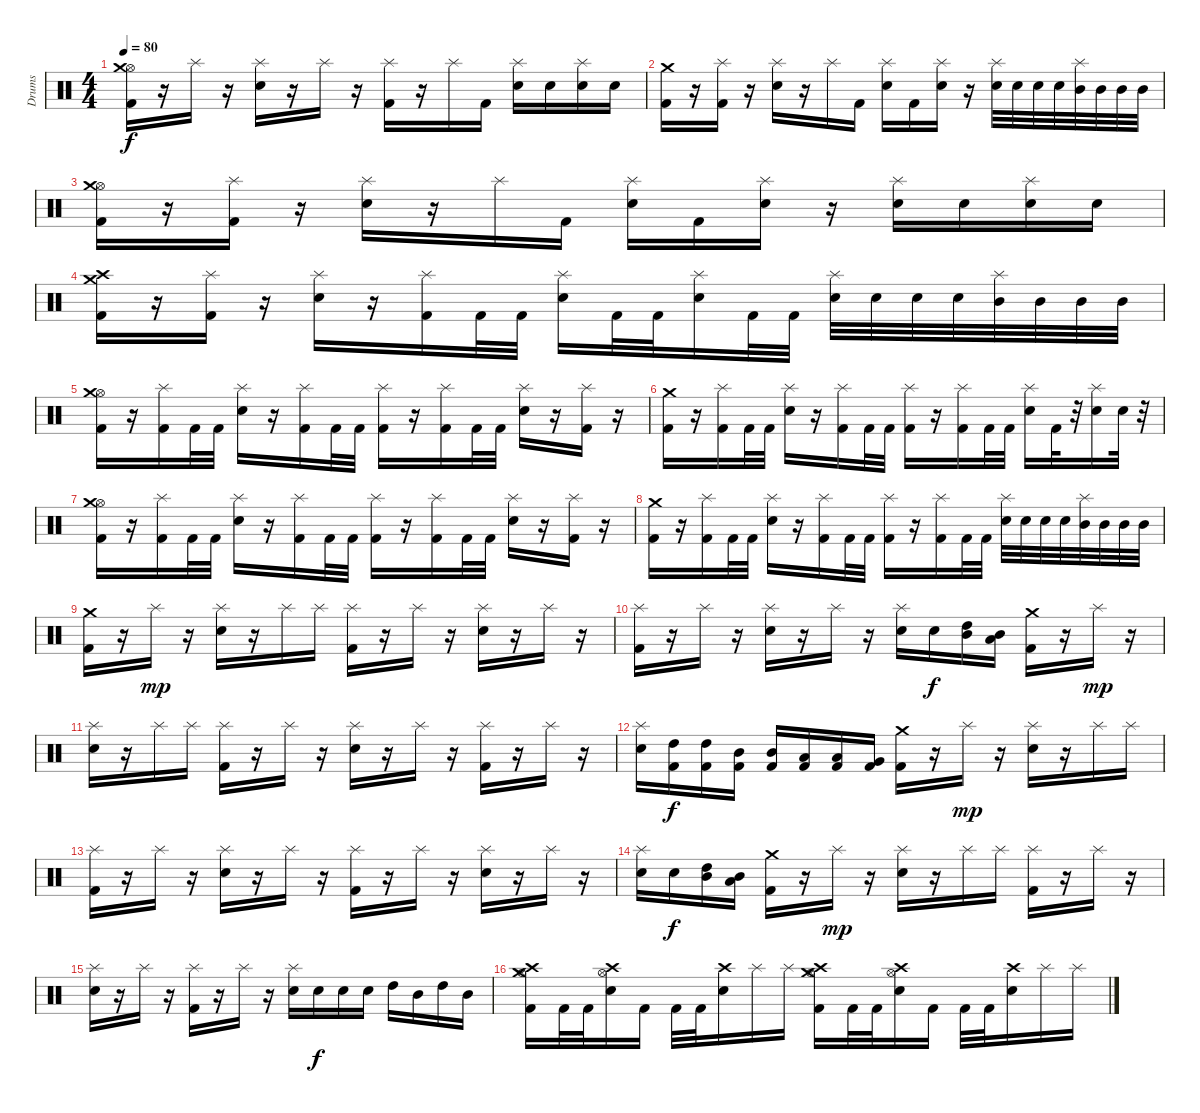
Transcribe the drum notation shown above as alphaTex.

\track ("Drums" "Drums") {instrument percussion}
\staff {score}
\articulation defaults
\ts (4 4)
\tempo 80
\clef neutral
\ks c
("Hi-Hat (open)" "Crash medium (hit)" "Kick (hit) 2").16{dy f} r.16 "Splash (hit)".16 r.16 ("Splash (hit)" "Snare (hit) 2").16 r.16 "Splash (hit)".16 r.16 ("Kick (hit) 2" "Splash (hit)").16 r.16 "Splash (hit)".16 "Kick (hit) 2".16 ("Electric Snare (hit)" "Splash (hit)").16 "Electric Snare (hit)".16 ("Electric Snare (hit)" "Splash (hit)").16 "Electric Snare (hit)".16 |
("Crash medium (hit)" "Kick (hit) 2").16 r.16 ("Kick (hit) 2" "Splash (hit)").16 r.16 ("Splash (hit)" "Snare (hit) 2").16 r.16 "Splash (hit)".16 "Kick (hit) 2".16 ("Splash (hit)" "Electric Snare (hit)").16 "Kick (hit) 2".16 ("Splash (hit)" "Electric Snare (hit)").16 r.16 ("Splash (hit)" "Electric Snare (hit)").32 "Electric Snare (hit)".32 "Electric Snare (hit)".32 "Electric Snare (hit)".32 ("Splash (hit)" "Mid Tom (hit)").32 "Mid Tom (hit)".32 "Mid Tom (hit)".32 "Mid Tom (hit)".32 |
("Hi-Hat (open)" "Crash medium (hit)" "Kick (hit) 2").16 r.16 ("Kick (hit) 2" "Splash (hit)").16 r.16 ("Snare (hit) 2" "Splash (hit)").16 r.16 "Splash (hit)".16 "Kick (hit) 2".16 ("Electric Snare (hit)" "Splash (hit)").16 "Kick (hit) 2".16 ("Electric Snare (hit)" "Splash (hit)").16 r.16 ("Electric Snare (hit)" "Splash (hit)").16 "Electric Snare (hit)".16 ("Electric Snare (hit)" "Splash (hit)").16 "Electric Snare (hit)".16 |
("Crash high (hit)" "Crash medium (hit)" "Kick (hit) 2").16 r.16 ("Kick (hit) 2" "Splash (hit)").16 r.16 ("Snare (hit) 2" "Splash (hit)").16 r.16 ("Kick (hit) 2" "Splash (hit)").16 "Kick (hit) 2".32 "Kick (hit) 2".32 ("Electric Snare (hit)" "Splash (hit)").16 "Kick (hit) 2".32 "Kick (hit) 2".32 ("Electric Snare (hit)" "Splash (hit)").16 "Kick (hit) 2".32 "Kick (hit) 2".32 ("Electric Snare (hit)" "Splash (hit)").32 "Electric Snare (hit)".32 "Electric Snare (hit)".32 "Electric Snare (hit)".32 ("Mid Tom (hit)" "Splash (hit)").32 "Mid Tom (hit)".32 "Mid Tom (hit)".32 "Mid Tom (hit)".32 |
("Hi-Hat (open)" "Crash medium (hit)" "Kick (hit) 2").16 r.16 ("Splash (hit)" "Kick (hit) 2").16 "Kick (hit) 2".32 "Kick (hit) 2".32 ("Snare (hit) 2" "Splash (hit)").16 r.16 ("Kick (hit) 2" "Splash (hit)").16 "Kick (hit) 2".32 "Kick (hit) 2".32 ("Kick (hit) 2" "Splash (hit)").16 r.16 ("Kick (hit) 2" "Splash (hit)").16 "Kick (hit) 2".32 "Kick (hit) 2".32 ("Snare (hit) 2" "Splash (hit)").16 r.16 ("Kick (hit) 2" "Splash (hit)").16 r.16 |
("Crash medium (hit)" "Kick (hit) 2").16 r.16 ("Splash (hit)" "Kick (hit) 2").16 "Kick (hit) 2".32 "Kick (hit) 2".32 ("Snare (hit) 2" "Splash (hit)").16 r.16 ("Kick (hit) 2" "Splash (hit)").16 "Kick (hit) 2".32 "Kick (hit) 2".32 ("Kick (hit) 2" "Splash (hit)").16 r.16 ("Kick (hit) 2" "Splash (hit)").16 "Kick (hit) 2".32 "Kick (hit) 2".32 ("Snare (hit) 2" "Splash (hit)").16 "Kick (hit) 2".32 r.32 ("Electric Snare (hit)" "Splash (hit)").16 "Electric Snare (hit)".32 r.32 |
("Hi-Hat (open)" "Crash medium (hit)" "Kick (hit) 2").16 r.16 ("Splash (hit)" "Kick (hit) 2").16 "Kick (hit) 2".32 "Kick (hit) 2".32 ("Snare (hit) 2" "Splash (hit)").16 r.16 ("Kick (hit) 2" "Splash (hit)").16 "Kick (hit) 2".32 "Kick (hit) 2".32 ("Kick (hit) 2" "Splash (hit)").16 r.16 ("Kick (hit) 2" "Splash (hit)").16 "Kick (hit) 2".32 "Kick (hit) 2".32 ("Snare (hit) 2" "Splash (hit)").16 r.16 ("Kick (hit) 2" "Splash (hit)").16 r.16 |
("Crash medium (hit)" "Kick (hit) 2").16 r.16 ("Splash (hit)" "Kick (hit) 2").16 "Kick (hit) 2".32 "Kick (hit) 2".32 ("Snare (hit) 2" "Splash (hit)").16 r.16 ("Kick (hit) 2" "Splash (hit)").16 "Kick (hit) 2".32 "Kick (hit) 2".32 ("Splash (hit)" "Kick (hit) 2").16 r.16 ("Kick (hit) 2" "Splash (hit)").16 "Kick (hit) 2".32 "Kick (hit) 2".32 ("Snare (hit) 2" "Splash (hit)").32 "Electric Snare (hit)".32 "Electric Snare (hit)".32 "Electric Snare (hit)".32 ("Mid Tom (hit)" "Splash (hit)").32 "Mid Tom (hit)".32 "Mid Tom (hit)".32 "Mid Tom (hit)".32 |
("Crash medium (hit)" "Kick (hit) 2").16 r.16 "Splash (hit)".16{dy mp} r.16 ("Electric Snare (hit)" "Splash (hit)").16 r.16 "Splash (hit)".16 "Splash (hit)".16 ("Splash (hit)" "Kick (hit) 2").16 r.16 "Splash (hit)".16 r.16 ("Electric Snare (hit)" "Splash (hit)").16 r.16 "Splash (hit)".16 r.16 |
("Kick (hit) 2" "Splash (hit)").16 r.16 "Splash (hit)".16 r.16 ("Splash (hit)" "Electric Snare (hit)").16 r.16 "Splash (hit)".16 r.16 ("Electric Snare (hit)" "Splash (hit)").16 "Electric Snare (hit)".16{dy f} ("High Tom (hit)" "Mid Tom (hit)").16 ("Low Tom (hit)" "Mid Tom (hit)").16 ("Kick (hit) 2" "Crash medium (hit)").16 r.16 "Splash (hit)".16{dy mp} r.16 |
("Splash (hit)" "Electric Snare (hit)").16 r.16 "Splash (hit)".16 "Splash (hit)".16 ("Splash (hit)" "Kick (hit) 2").16 r.16 "Splash (hit)".16 r.16 ("Electric Snare (hit)" "Splash (hit)").16 r.16 "Splash (hit)".16 r.16 ("Splash (hit)" "Kick (hit) 2").16 r.16 "Splash (hit)".16 r.16 |
("Electric Snare (hit)" "Splash (hit)").16 ("High Tom (hit)" "Kick (hit) 2").16{dy f} ("Kick (hit) 2" "High Tom (hit)").16 ("Kick (hit) 2" "Mid Tom (hit)").16 ("Kick (hit) 2" "Mid Tom (hit)").16 ("Kick (hit) 2" "Low Tom (hit)").16 ("Kick (hit) 2" "Low Tom (hit)").16 ("Kick (hit) 2" "Very Low Tom (hit)").16 ("Kick (hit) 2" "Crash medium (hit)").16 r.16 "Splash (hit)".16{dy mp} r.16 ("Electric Snare (hit)" "Splash (hit)").16 r.16 "Splash (hit)".16 "Splash (hit)".16 |
("Kick (hit) 2" "Splash (hit)").16 r.16 "Splash (hit)".16 r.16 ("Electric Snare (hit)" "Splash (hit)").16 r.16 "Splash (hit)".16 r.16 ("Kick (hit) 2" "Splash (hit)").16 r.16 "Splash (hit)".16 r.16 ("Electric Snare (hit)" "Splash (hit)").16 r.16 "Splash (hit)".16 r.16 |
("Splash (hit)" "Electric Snare (hit)").16 "Electric Snare (hit)".16{dy f} ("Mid Tom (hit)" "High Tom (hit)").16 ("Mid Tom (hit)" "Low Tom (hit)").16 ("Kick (hit) 2" "Crash medium (hit)").16 r.16 "Splash (hit)".16{dy mp} r.16 ("Splash (hit)" "Electric Snare (hit)").16 r.16 "Splash (hit)".16 "Splash (hit)".16 ("Splash (hit)" "Kick (hit) 2").16 r.16 "Splash (hit)".16 r.16 |
("Splash (hit)" "Electric Snare (hit)").16 r.16 "Splash (hit)".16 r.16 ("Kick (hit) 2" "Splash (hit)").16 r.16 "Splash (hit)".16 r.16 ("Splash (hit)" "Electric Snare (hit)").16 "Electric Snare (hit)".16{dy f} "Electric Snare (hit)".16 "Electric Snare (hit)".16 "High Tom (hit)".16 "Mid Tom (hit)".16 "High Tom (hit)".16 "Mid Tom (hit)".16 |
("Hi-Hat (open)" "Crash high (hit)" "Crash medium (hit)" "Kick (hit) 2").16 "Kick (hit) 2".32 "Kick (hit) 2".32 ("Hi-Hat (open)" "Crash high (hit)" "Electric Snare (hit)").16 "Kick (hit) 2".16 "Kick (hit) 2".32 "Kick (hit) 2".32 ("Crash high (hit)" "Electric Snare (hit)").16 "Splash (hit)".16 "Splash (hit)".16 ("Hi-Hat (open)" "Crash high (hit)" "Crash medium (hit)" "Kick (hit) 2").16 "Kick (hit) 2".32 "Kick (hit) 2".32 ("Crash high (hit)" "Electric Snare (hit)" "Hi-Hat (open)").16 "Kick (hit) 2".16 "Kick (hit) 2".32 "Kick (hit) 2".32 ("Crash high (hit)" "Electric Snare (hit)").16 "Splash (hit)".16 "Splash (hit)".16
